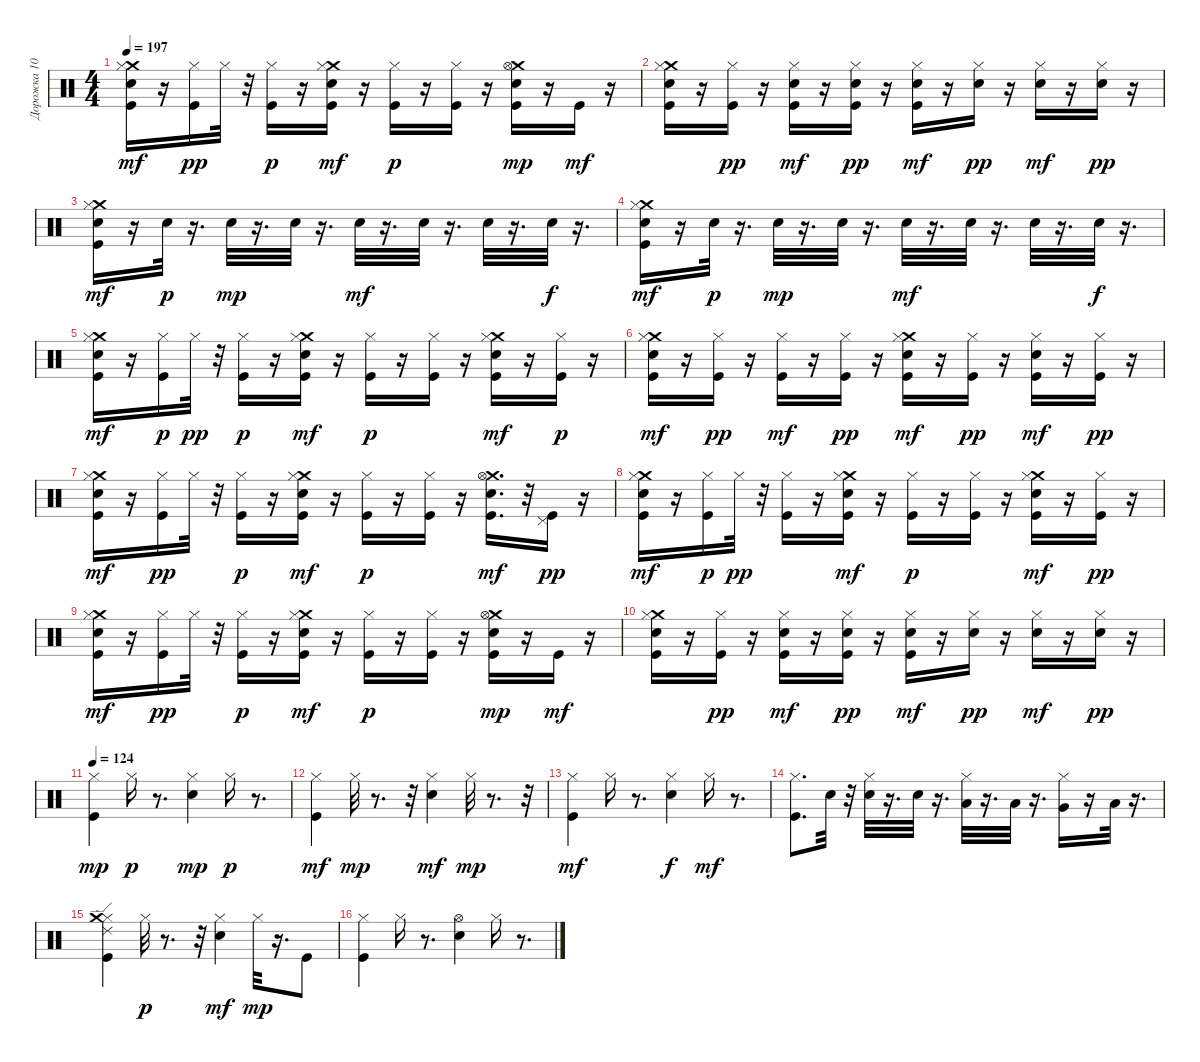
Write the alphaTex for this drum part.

\track ("Дорожка 10" "Дорожка 10") {instrument percussion}
\staff {score}
\articulation defaults
\ts (4 4)
\tempo 197
\clef neutral
\ks c
("Crash medium (hit)" "Snare (hit) 2" "Kick (hit)" "Hi-Hat (closed)").16{dy mf} r.16 ("Kick (hit)" "Hi-Hat (closed)").16{dy pp} "Hi-Hat (closed)".32 r.32 ("Kick (hit)" "Hi-Hat (closed)").16{dy p} r.16 ("Snare (hit) 2" "Crash medium (hit)" "Kick (hit)" "Hi-Hat (closed)").16{dy mf} r.16 ("Kick (hit)" "Hi-Hat (closed)").16{dy p} r.16 ("Kick (hit)" "Hi-Hat (closed)").16 r.16 ("Crash medium (hit)" "Snare (hit) 2" "Kick (hit)" "Hi-Hat (open)").16{dy mp} r.16 "Kick (hit)".16{dy mf} r.16 |
("Crash medium (hit)" "Snare (hit) 2" "Kick (hit)" "Hi-Hat (closed)").16 r.16 ("Kick (hit)" "Hi-Hat (closed)").16{dy pp} r.16 ("Snare (hit) 2" "Kick (hit)" "Hi-Hat (closed)").16{dy mf} r.16 ("Snare (hit) 2" "Kick (hit)" "Hi-Hat (closed)").16{dy pp} r.16 ("Snare (hit) 2" "Kick (hit)" "Hi-Hat (closed)").16{dy mf} r.16 ("Snare (hit) 2" "Hi-Hat (closed)").16{dy pp} r.16 ("Snare (hit) 2" "Hi-Hat (closed)").16{dy mf} r.16 ("Snare (hit) 2" "Hi-Hat (closed)").16{dy pp} r.16 |
("Snare (hit) 2" "Crash medium (hit)" "Kick (hit)" "Hi-Hat (closed)").16{dy mf} r.16 "Snare (hit) 2".32{dy p} r.16{d} "Snare (hit) 2".32{dy mp} r.16{d} "Snare (hit) 2".32 r.16{d} "Snare (hit) 2".32{dy mf} r.16{d} "Snare (hit) 2".32 r.16{d} "Snare (hit) 2".32 r.16{d} "Snare (hit) 2".32{dy f} r.16{d} |
("Snare (hit) 2" "Crash medium (hit)" "Kick (hit)" "Hi-Hat (closed)").16{dy mf} r.16 "Snare (hit) 2".32{dy p} r.16{d} "Snare (hit) 2".32{dy mp} r.16{d} "Snare (hit) 2".32 r.16{d} "Snare (hit) 2".32{dy mf} r.16{d} "Snare (hit) 2".32 r.16{d} "Snare (hit) 2".32 r.16{d} "Snare (hit) 2".32{dy f} r.16{d} |
("Crash medium (hit)" "Snare (hit) 2" "Kick (hit)" "Hi-Hat (closed)").16{dy mf} r.16 ("Kick (hit)" "Hi-Hat (closed)").16{dy p} "Hi-Hat (closed)".32{dy pp} r.32 ("Kick (hit)" "Hi-Hat (closed)").16{dy p} r.16 ("Crash medium (hit)" "Snare (hit) 2" "Kick (hit)" "Hi-Hat (closed)").16{dy mf} r.16 ("Kick (hit)" "Hi-Hat (closed)").16{dy p} r.16 ("Kick (hit)" "Hi-Hat (closed)").16 r.16 ("Crash medium (hit)" "Snare (hit) 2" "Kick (hit)" "Hi-Hat (closed)").16{dy mf} r.16 ("Kick (hit)" "Hi-Hat (closed)").16{dy p} r.16 |
("Crash medium (hit)" "Snare (hit) 2" "Kick (hit)" "Hi-Hat (closed)").16{dy mf} r.16 ("Kick (hit)" "Hi-Hat (closed)").16{dy pp} r.16 ("Kick (hit)" "Hi-Hat (closed)").16{dy mf} r.16 ("Kick (hit)" "Hi-Hat (closed)").16{dy pp} r.16 ("Snare (hit) 2" "Crash medium (hit)" "Kick (hit)" "Hi-Hat (closed)").16{dy mf} r.16 ("Kick (hit)" "Hi-Hat (closed)").16{dy pp} r.16 ("Snare (hit) 2" "Kick (hit)" "Hi-Hat (closed)").16{dy mf} r.16 ("Kick (hit)" "Hi-Hat (closed)").16{dy pp} r.16 |
("Crash medium (hit)" "Snare (hit) 2" "Kick (hit)" "Hi-Hat (closed)").16{dy mf} r.16 ("Kick (hit)" "Hi-Hat (closed)").16{dy pp} "Hi-Hat (closed)".32 r.32 ("Kick (hit)" "Hi-Hat (closed)").16{dy p} r.16 ("Snare (hit) 2" "Crash medium (hit)" "Kick (hit)" "Hi-Hat (closed)").16{dy mf} r.16 ("Kick (hit)" "Hi-Hat (closed)").16{dy p} r.16 ("Kick (hit)" "Hi-Hat (closed)").16 r.16 ("Crash medium (hit)" "Snare (hit) 2" "Kick (hit)" "Hi-Hat (open)").16{d dy mf} r.32 ("Kick (hit)" "Pedal Hi-Hat (hit)").16{dy pp} r.16 |
("Crash medium (hit)" "Snare (hit) 2" "Kick (hit)" "Hi-Hat (closed)").16{dy mf} r.16 ("Kick (hit)" "Hi-Hat (closed)").16{dy p} "Hi-Hat (closed)".32{dy pp} r.32 ("Kick (hit)" "Hi-Hat (closed)").16 r.16 ("Snare (hit) 2" "Crash medium (hit)" "Kick (hit)" "Hi-Hat (closed)").16{dy mf} r.16 ("Kick (hit)" "Hi-Hat (closed)").16{dy p} r.16 ("Kick (hit)" "Hi-Hat (closed)").16 r.16 ("Crash medium (hit)" "Snare (hit) 2" "Kick (hit)" "Hi-Hat (closed)").16{dy mf} r.16 ("Kick (hit)" "Hi-Hat (closed)").16{dy pp} r.16 |
("Crash medium (hit)" "Snare (hit) 2" "Kick (hit)" "Hi-Hat (closed)").16{dy mf} r.16 ("Kick (hit)" "Hi-Hat (closed)").16{dy pp} "Hi-Hat (closed)".32 r.32 ("Kick (hit)" "Hi-Hat (closed)").16{dy p} r.16 ("Snare (hit) 2" "Crash medium (hit)" "Kick (hit)" "Hi-Hat (closed)").16{dy mf} r.16 ("Kick (hit)" "Hi-Hat (closed)").16{dy p} r.16 ("Kick (hit)" "Hi-Hat (closed)").16 r.16 ("Crash medium (hit)" "Snare (hit) 2" "Kick (hit)" "Hi-Hat (open)").16{dy mp} r.16 "Kick (hit)".16{dy mf} r.16 |
("Crash medium (hit)" "Snare (hit) 2" "Kick (hit)" "Hi-Hat (closed)").16 r.16 ("Kick (hit)" "Hi-Hat (closed)").16{dy pp} r.16 ("Snare (hit) 2" "Kick (hit)" "Hi-Hat (closed)").16{dy mf} r.16 ("Snare (hit) 2" "Kick (hit)" "Hi-Hat (closed)").16{dy pp} r.16 ("Snare (hit) 2" "Kick (hit)" "Hi-Hat (closed)").16{dy mf} r.16 ("Snare (hit) 2" "Hi-Hat (closed)").16{dy pp} r.16 ("Snare (hit) 2" "Hi-Hat (closed)").16{dy mf} r.16 ("Snare (hit) 2" "Hi-Hat (closed)").16{dy pp} r.16 |
\tempo 124
("Hi-Hat (closed)" "Kick (hit)").4{dy mp} "Hi-Hat (closed)".16{dy p} r.8{d} ("Electric Snare (hit)" "Hi-Hat (closed)").4{dy mp} "Hi-Hat (closed)".16{dy p} r.8{d} |
("Hi-Hat (closed)" "Kick (hit)").4{dy mf} "Hi-Hat (closed)".32{dy mp} r.8{d} r.32 ("Hi-Hat (closed)" "Electric Snare (hit)").4{dy mf} "Hi-Hat (closed)".32{dy mp} r.8{d} r.32 |
("Kick (hit)" "Hi-Hat (closed)").4{dy mf} "Hi-Hat (closed)".16 r.8{d} ("Electric Snare (hit)" "Hi-Hat (closed)").4{dy f} "Hi-Hat (closed)".16{dy mf} r.8{d} |
("Hi-Hat (closed)" "Kick (hit)").8{d} "Electric Snare (hit)".32 r.32 ("Electric Snare (hit)" "Hi-Hat (closed)").32 r.16{d} "Electric Snare (hit)".32 r.16{d} ("Low Tom (hit)" "Hi-Hat (closed)").32 r.16{d} "Low Tom (hit)".32 r.16{d} ("Very Low Tom (hit)" "Hi-Hat (closed)").16 r.16 "Low Floor Tom (hit)".32 r.16{d} |
("Hi-Hat (closed)" "Kick (hit)" "Crash medium (hit)" "Ride (edge) 2").4 "Hi-Hat (closed)".32{dy p} r.8{d} r.32 ("Hi-Hat (closed)" "Electric Snare (hit)").4{dy mf} "Hi-Hat (closed)".32{dy mp} r.16{d} "Kick (hit)".8 |
("Kick (hit)" "Hi-Hat (closed)").4 "Hi-Hat (closed)".16 r.8{d} ("Hi-Hat (open)" "Electric Snare (hit)").4 "Hi-Hat (closed)".16 r.8{d}
